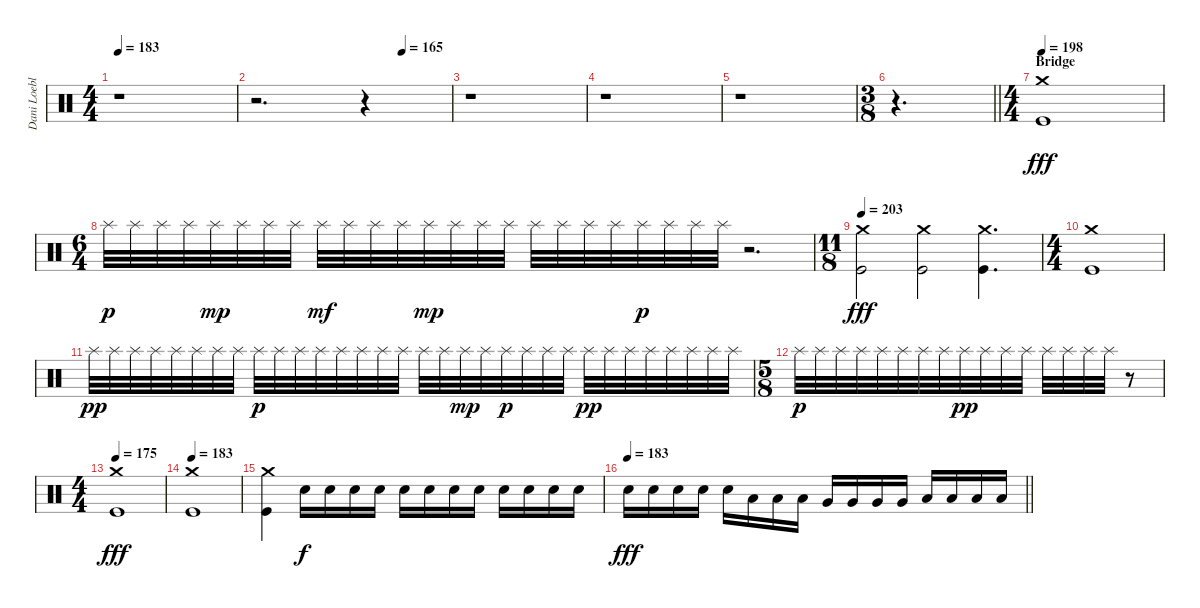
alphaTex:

\track ("Dani Loeble" "Dani Loebl") {instrument percussion}
\staff {score}
\articulation defaults
\ts (4 4)
\tempo 183
\clef neutral
\ks c
r.1{dy fff} |
\tempo (165 0.75)
r.2{d} r.4 |
r.1 |
r.1 |
r.1 |
\ts (3 8)
\barLineRight lightlight
r.4{d} |
\ts (4 4)
\section ("" "Bridge")
\tempo 198
("Crash medium (hit)" "Kick (hit)").1 |
\ts (6 4)
"Splash (hit)".32{dy p} "Splash (hit)".32 "Splash (hit)".32 "Splash (hit)".32 "Splash (hit)".32{dy mp} "Splash (hit)".32 "Splash (hit)".32 "Splash (hit)".32 "Splash (hit)".32{dy mf} "Splash (hit)".32 "Splash (hit)".32 "Splash (hit)".32 "Splash (hit)".32{dy mp} "Splash (hit)".32 "Splash (hit)".32 "Splash (hit)".32 "Splash (hit)".32 "Splash (hit)".32 "Splash (hit)".32 "Splash (hit)".32 "Splash (hit)".32{dy p} "Splash (hit)".32 "Splash (hit)".32 "Splash (hit)".32 r.2{d} |
\ts (11 8)
\tempo 203
("Crash medium (hit)" "Kick (hit)").2{dy fff} ("Crash medium (hit)" "Kick (hit)").2 ("Crash medium (hit)" "Kick (hit)").4{d} |
\ts (4 4)
("Crash medium (hit)" "Kick (hit)").1 |
"Splash (hit)".32{dy pp} "Splash (hit)".32 "Splash (hit)".32 "Splash (hit)".32 "Splash (hit)".32 "Splash (hit)".32 "Splash (hit)".32 "Splash (hit)".32 "Splash (hit)".32{dy p} "Splash (hit)".32 "Splash (hit)".32 "Splash (hit)".32 "Splash (hit)".32 "Splash (hit)".32 "Splash (hit)".32 "Splash (hit)".32 "Splash (hit)".32 "Splash (hit)".32 "Splash (hit)".32{dy mp} "Splash (hit)".32 "Splash (hit)".32{dy p} "Splash (hit)".32 "Splash (hit)".32 "Splash (hit)".32 "Splash (hit)".32{dy pp} "Splash (hit)".32 "Splash (hit)".32 "Splash (hit)".32 "Splash (hit)".32 "Splash (hit)".32 "Splash (hit)".32 "Splash (hit)".32 |
\ts (5 8)
"Splash (hit)".32{dy p} "Splash (hit)".32 "Splash (hit)".32 "Splash (hit)".32 "Splash (hit)".32 "Splash (hit)".32 "Splash (hit)".32 "Splash (hit)".32 "Splash (hit)".32{dy pp} "Splash (hit)".32 "Splash (hit)".32 "Splash (hit)".32 "Splash (hit)".32 "Splash (hit)".32 "Splash (hit)".32 "Splash (hit)".32 r.8 |
\ts (4 4)
\tempo 175
("Crash medium (hit)" "Kick (hit)").1{dy fff} |
\tempo 183
("Crash medium (hit)" "Kick (hit)").1 |
("Crash medium (hit)" "Kick (hit)").4 "Electric Snare (hit)".16{dy f} "Electric Snare (hit)".16 "Electric Snare (hit)".16 "Electric Snare (hit)".16 "Electric Snare (hit)".16 "Electric Snare (hit)".16 "Electric Snare (hit)".16 "Electric Snare (hit)".16 "Electric Snare (hit)".16 "Electric Snare (hit)".16 "Electric Snare (hit)".16 "Electric Snare (hit)".16 |
\tempo 183
\barLineRight lightlight "Electric Snare (hit)".16{dy fff} "Electric Snare (hit)".16 "Electric Snare (hit)".16 "Electric Snare (hit)".16 "Electric Snare (hit)".16 "Low Tom (hit)".16 "Low Tom (hit)".16 "Low Tom (hit)".16 "Very Low Tom (hit)".16 "Very Low Tom (hit)".16 "Very Low Tom (hit)".16 "Very Low Tom (hit)".16 "Low Floor Tom (hit)".16 "Low Floor Tom (hit)".16 "Low Floor Tom (hit)".16 "Low Floor Tom (hit)".16
